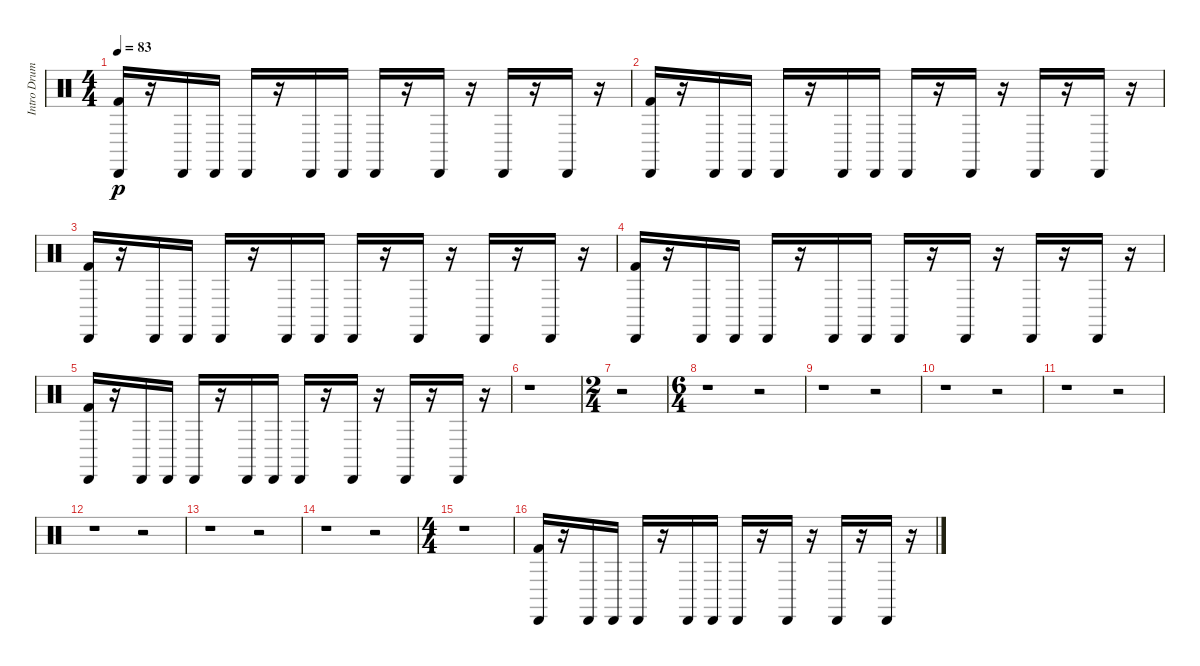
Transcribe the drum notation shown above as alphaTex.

\track ("Intro Drums" "Intro Drum") {instrument percussion}
\staff {score}
\articulation defaults
\ts (4 4)
\tempo 83
\clef neutral
\ks c
("Cabasa (hit)" "Kick (hit) 2").16{dy p} r.16 "Cabasa (hit)".16 "Cabasa (hit)".16 "Cabasa (hit)".16 r.16 "Cabasa (hit)".16 "Cabasa (hit)".16 "Cabasa (hit)".16 r.16 "Cabasa (hit)".16 r.16 "Cabasa (hit)".16 r.16 "Cabasa (hit)".16 r.16 |
("Cabasa (hit)" "Kick (hit) 2").16 r.16 "Cabasa (hit)".16 "Cabasa (hit)".16 "Cabasa (hit)".16 r.16 "Cabasa (hit)".16 "Cabasa (hit)".16 "Cabasa (hit)".16 r.16 "Cabasa (hit)".16 r.16 "Cabasa (hit)".16 r.16 "Cabasa (hit)".16 r.16 |
("Cabasa (hit)" "Kick (hit) 2").16 r.16 "Cabasa (hit)".16 "Cabasa (hit)".16 "Cabasa (hit)".16 r.16 "Cabasa (hit)".16 "Cabasa (hit)".16 "Cabasa (hit)".16 r.16 "Cabasa (hit)".16 r.16 "Cabasa (hit)".16 r.16 "Cabasa (hit)".16 r.16 |
("Cabasa (hit)" "Kick (hit) 2").16 r.16 "Cabasa (hit)".16 "Cabasa (hit)".16 "Cabasa (hit)".16 r.16 "Cabasa (hit)".16 "Cabasa (hit)".16 "Cabasa (hit)".16 r.16 "Cabasa (hit)".16 r.16 "Cabasa (hit)".16 r.16 "Cabasa (hit)".16 r.16 |
("Cabasa (hit)" "Kick (hit) 2").16 r.16 "Cabasa (hit)".16 "Cabasa (hit)".16 "Cabasa (hit)".16 r.16 "Cabasa (hit)".16 "Cabasa (hit)".16 "Cabasa (hit)".16 r.16 "Cabasa (hit)".16 r.16 "Cabasa (hit)".16 r.16 "Cabasa (hit)".16 r.16 |
r.1 |
\ts (2 4)
r.2 |
\ts (6 4)
r.1 r.2 |
r.1 r.2 |
r.1 r.2 |
r.1 r.2 |
r.1 r.2 |
r.1 r.2 |
r.1 r.2 |
\ts (4 4)
r.1 |
("Cabasa (hit)" "Kick (hit) 2").16 r.16 "Cabasa (hit)".16 "Cabasa (hit)".16 "Cabasa (hit)".16 r.16 "Cabasa (hit)".16 "Cabasa (hit)".16 "Cabasa (hit)".16 r.16 "Cabasa (hit)".16 r.16 "Cabasa (hit)".16 r.16 "Cabasa (hit)".16 r.16
